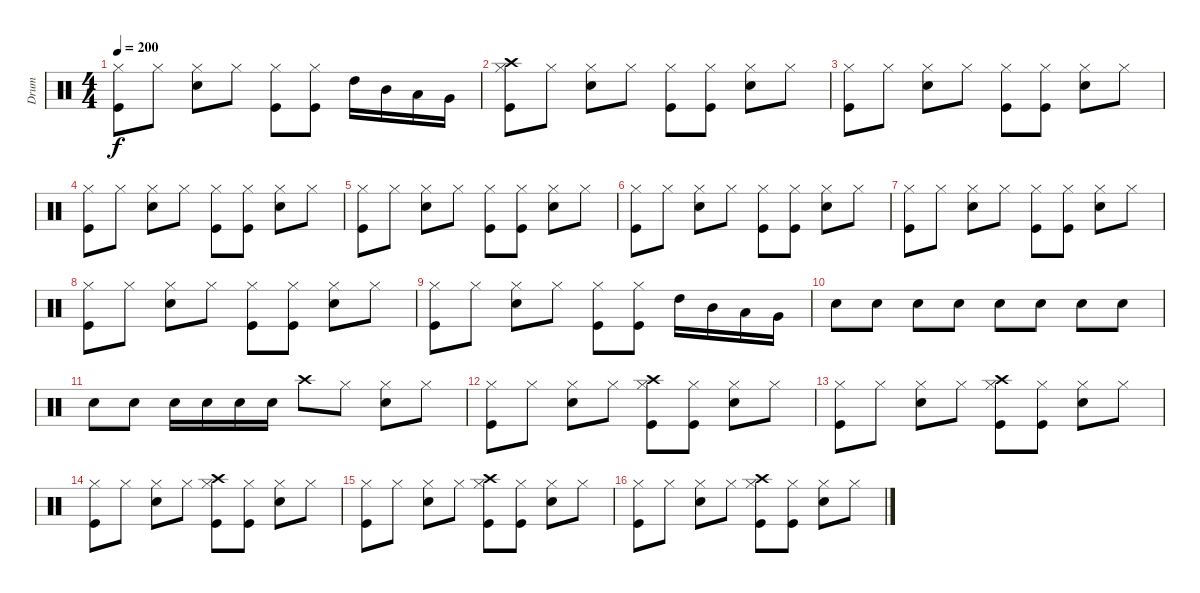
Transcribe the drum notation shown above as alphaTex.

\track ("Drum" "Drum") {instrument percussion}
\staff {score}
\articulation defaults
\ts (4 4)
\tempo 200
\clef neutral
\ks c
("Hi-Hat (closed)" "Kick (hit)").8{dy f} "Hi-Hat (closed)".8 ("Hi-Hat (closed)" "Electric Snare (hit)").8 "Hi-Hat (closed)".8 ("Hi-Hat (closed)" "Kick (hit)").8 ("Hi-Hat (closed)" "Kick (hit)").8 "High Tom (hit)".16 "Mid Tom (hit)".16 "Low Tom (hit)".16 "Very Low Tom (hit)".16 |
("Crash high (hit)" "Hi-Hat (closed)" "Kick (hit)").8 "Hi-Hat (closed)".8 ("Hi-Hat (closed)" "Electric Snare (hit)").8 "Hi-Hat (closed)".8 ("Hi-Hat (closed)" "Kick (hit)").8 ("Hi-Hat (closed)" "Kick (hit)").8 ("Hi-Hat (closed)" "Electric Snare (hit)").8 "Hi-Hat (closed)".8 |
("Hi-Hat (closed)" "Kick (hit)").8 "Hi-Hat (closed)".8 ("Hi-Hat (closed)" "Electric Snare (hit)").8 "Hi-Hat (closed)".8 ("Hi-Hat (closed)" "Kick (hit)").8 ("Hi-Hat (closed)" "Kick (hit)").8 ("Hi-Hat (closed)" "Electric Snare (hit)").8 "Hi-Hat (closed)".8 |
("Hi-Hat (closed)" "Kick (hit)").8 "Hi-Hat (closed)".8 ("Hi-Hat (closed)" "Electric Snare (hit)").8 "Hi-Hat (closed)".8 ("Hi-Hat (closed)" "Kick (hit)").8 ("Hi-Hat (closed)" "Kick (hit)").8 ("Hi-Hat (closed)" "Electric Snare (hit)").8 "Hi-Hat (closed)".8 |
("Hi-Hat (closed)" "Kick (hit)").8 "Hi-Hat (closed)".8 ("Hi-Hat (closed)" "Electric Snare (hit)").8 "Hi-Hat (closed)".8 ("Hi-Hat (closed)" "Kick (hit)").8 ("Hi-Hat (closed)" "Kick (hit)").8 ("Hi-Hat (closed)" "Electric Snare (hit)").8 "Hi-Hat (closed)".8 |
("Hi-Hat (closed)" "Kick (hit)").8 "Hi-Hat (closed)".8 ("Hi-Hat (closed)" "Electric Snare (hit)").8 "Hi-Hat (closed)".8 ("Hi-Hat (closed)" "Kick (hit)").8 ("Hi-Hat (closed)" "Kick (hit)").8 ("Hi-Hat (closed)" "Electric Snare (hit)").8 "Hi-Hat (closed)".8 |
("Hi-Hat (closed)" "Kick (hit)").8 "Hi-Hat (closed)".8 ("Hi-Hat (closed)" "Electric Snare (hit)").8 "Hi-Hat (closed)".8 ("Hi-Hat (closed)" "Kick (hit)").8 ("Hi-Hat (closed)" "Kick (hit)").8 ("Hi-Hat (closed)" "Electric Snare (hit)").8 "Hi-Hat (closed)".8 |
("Hi-Hat (closed)" "Kick (hit)").8 "Hi-Hat (closed)".8 ("Hi-Hat (closed)" "Electric Snare (hit)").8 "Hi-Hat (closed)".8 ("Hi-Hat (closed)" "Kick (hit)").8 ("Hi-Hat (closed)" "Kick (hit)").8 ("Hi-Hat (closed)" "Electric Snare (hit)").8 "Hi-Hat (closed)".8 |
("Hi-Hat (closed)" "Kick (hit)").8 "Hi-Hat (closed)".8 ("Hi-Hat (closed)" "Electric Snare (hit)").8 "Hi-Hat (closed)".8 ("Hi-Hat (closed)" "Kick (hit)").8 ("Hi-Hat (closed)" "Kick (hit)").8 "High Tom (hit)".16 "Mid Tom (hit)".16 "Low Tom (hit)".16 "Very Low Tom (hit)".16 |
"Electric Snare (hit)".8 "Electric Snare (hit)".8 "Electric Snare (hit)".8 "Electric Snare (hit)".8 "Electric Snare (hit)".8 "Electric Snare (hit)".8 "Electric Snare (hit)".8 "Electric Snare (hit)".8 |
"Electric Snare (hit)".8 "Electric Snare (hit)".8 "Electric Snare (hit)".16 "Electric Snare (hit)".16 "Electric Snare (hit)".16 "Electric Snare (hit)".16 "Crash high (hit)".8 "Hi-Hat (closed)".8 ("Hi-Hat (closed)" "Electric Snare (hit)").8 "Hi-Hat (closed)".8 |
("Hi-Hat (closed)" "Kick (hit)").8 "Hi-Hat (closed)".8 ("Hi-Hat (closed)" "Electric Snare (hit)").8 "Hi-Hat (closed)".8 ("Crash high (hit)" "Hi-Hat (closed)" "Kick (hit)").8 ("Hi-Hat (closed)" "Kick (hit)").8 ("Hi-Hat (closed)" "Electric Snare (hit)").8 "Hi-Hat (closed)".8 |
("Hi-Hat (closed)" "Kick (hit)").8 "Hi-Hat (closed)".8 ("Hi-Hat (closed)" "Electric Snare (hit)").8 "Hi-Hat (closed)".8 ("Crash high (hit)" "Hi-Hat (closed)" "Kick (hit)").8 ("Hi-Hat (closed)" "Kick (hit)").8 ("Hi-Hat (closed)" "Electric Snare (hit)").8 "Hi-Hat (closed)".8 |
("Hi-Hat (closed)" "Kick (hit)").8 "Hi-Hat (closed)".8 ("Hi-Hat (closed)" "Electric Snare (hit)").8 "Hi-Hat (closed)".8 ("Crash high (hit)" "Hi-Hat (closed)" "Kick (hit)").8 ("Hi-Hat (closed)" "Kick (hit)").8 ("Hi-Hat (closed)" "Electric Snare (hit)").8 "Hi-Hat (closed)".8 |
("Hi-Hat (closed)" "Kick (hit)").8 "Hi-Hat (closed)".8 ("Hi-Hat (closed)" "Electric Snare (hit)").8 "Hi-Hat (closed)".8 ("Crash high (hit)" "Hi-Hat (closed)" "Kick (hit)").8 ("Hi-Hat (closed)" "Kick (hit)").8 ("Hi-Hat (closed)" "Electric Snare (hit)").8 "Hi-Hat (closed)".8 |
("Hi-Hat (closed)" "Kick (hit)").8 "Hi-Hat (closed)".8 ("Hi-Hat (closed)" "Electric Snare (hit)").8 "Hi-Hat (closed)".8 ("Crash high (hit)" "Hi-Hat (closed)" "Kick (hit)").8 ("Hi-Hat (closed)" "Kick (hit)").8 ("Hi-Hat (closed)" "Electric Snare (hit)").8 "Hi-Hat (closed)".8
